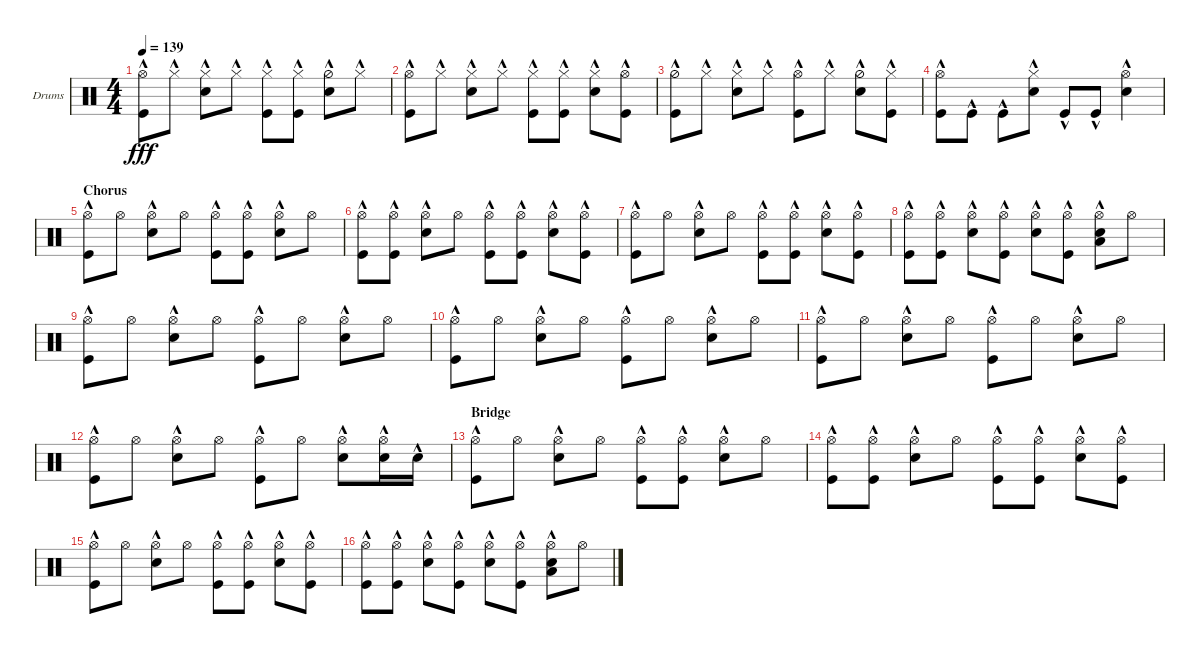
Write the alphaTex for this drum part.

\bracketExtendMode groupsimilarinstruments
\firstSystemTrackNameOrientation horizontal
\otherSystemsTrackNameOrientation horizontal
\track ("Drumkit" "Drums") {instrument percussion}
\staff {score}
\articulation defaults
\ts (4 4)
\tempo 139
\clef neutral
\ks c
("Kick (hit)"{hac} "Hi-Hat (open)"{hac}).8{dy fff} "Hi-Hat (closed)"{hac}.8 ("Hi-Hat (closed)"{hac} "Snare (hit) 2"{hac}).8 "Hi-Hat (closed)"{hac}.8 ("Hi-Hat (closed)"{hac} "Kick (hit)"{hac}).8 ("Hi-Hat (closed)"{hac} "Kick (hit)"{hac}).8 ("Hi-Hat (half)"{hac} "Snare (hit) 2"{hac}).8 "Hi-Hat (closed)"{hac}.8 |
("Kick (hit)"{hac} "Hi-Hat (open)"{hac}).8 "Hi-Hat (closed)"{hac}.8 ("Hi-Hat (closed)"{hac} "Snare (hit) 2"{hac}).8 "Hi-Hat (closed)"{hac}.8 ("Hi-Hat (closed)"{hac} "Kick (hit)"{hac}).8 ("Hi-Hat (closed)"{hac} "Kick (hit)"{hac}).8 ("Hi-Hat (closed)"{hac} "Snare (hit) 2"{hac}).8 ("Hi-Hat (open)"{hac} "Kick (hit)"{hac}).8 |
("Kick (hit)"{hac} "Hi-Hat (half)"{hac}).8 "Hi-Hat (closed)"{hac}.8 ("Hi-Hat (closed)"{hac} "Snare (hit) 2"{hac}).8 "Hi-Hat (closed)"{hac}.8 ("Hi-Hat (open)"{hac} "Kick (hit)"{hac}).8 "Hi-Hat (closed)"{hac}.8 ("Hi-Hat (half)"{hac} "Snare (hit) 2"{hac}).8 ("Hi-Hat (closed)"{hac} "Kick (hit)"{hac}).8 |
("Kick (hit)"{hac} "Hi-Hat (open)"{hac}).8 "Kick (hit)"{hac}.8 "Kick (hit)"{hac}.8 ("Snare (hit) 2"{hac} "Hi-Hat (closed)"{hac}).8 "Kick (hit)"{hac}.8 "Kick (hit)"{hac}.8 ("Hi-Hat (open)"{hac} "Snare (hit) 2"{hac}).4 |
\section ("" "Chorus")
("Hi-Hat (open)"{hac} "Kick (hit)"{hac}).8 "Hi-Hat (open)".8 ("Hi-Hat (open)"{hac} "Snare (hit) 2"{hac}).8 "Hi-Hat (open)".8 ("Hi-Hat (open)"{hac} "Kick (hit)"{hac}).8 ("Hi-Hat (open)" "Kick (hit)"{hac}).8 ("Hi-Hat (open)"{hac} "Snare (hit) 2"{hac}).8 "Hi-Hat (open)".8 |
("Hi-Hat (open)"{hac} "Kick (hit)"{hac}).8 ("Hi-Hat (open)" "Kick (hit)"{hac}).8 ("Hi-Hat (open)"{hac} "Snare (hit) 2"{hac}).8 "Hi-Hat (open)".8 ("Hi-Hat (open)"{hac} "Kick (hit)"{hac}).8 ("Hi-Hat (open)" "Kick (hit)"{hac}).8 ("Hi-Hat (open)"{hac} "Snare (hit) 2"{hac}).8 ("Hi-Hat (open)" "Kick (hit)"{hac}).8 |
("Hi-Hat (open)"{hac} "Kick (hit)"{hac}).8 "Hi-Hat (open)".8 ("Hi-Hat (open)"{hac} "Snare (hit) 2"{hac}).8 "Hi-Hat (open)".8 ("Hi-Hat (open)"{hac} "Kick (hit)"{hac}).8 ("Hi-Hat (open)" "Kick (hit)"{hac}).8 ("Hi-Hat (open)"{hac} "Snare (hit) 2"{hac}).8 ("Hi-Hat (open)" "Kick (hit)"{hac}).8 |
("Hi-Hat (open)"{hac} "Kick (hit)"{hac}).8 ("Hi-Hat (open)" "Kick (hit)"{hac}).8 ("Hi-Hat (open)"{hac} "Snare (hit) 2"{hac}).8 ("Hi-Hat (open)" "Kick (hit)"{hac}).8 ("Hi-Hat (open)"{hac} "Snare (hit) 2"{hac}).8 ("Hi-Hat (open)" "Kick (hit)"{hac}).8 ("Hi-Hat (open)"{hac} "Snare (hit) 2"{hac} "Low Tom (hit)"{hac}).8 "Hi-Hat (open)".8 |
("Hi-Hat (open)"{hac} "Kick (hit)"{hac}).8 "Hi-Hat (open)".8 ("Hi-Hat (open)"{hac} "Snare (hit) 2"{hac}).8 "Hi-Hat (open)".8 ("Hi-Hat (open)"{hac} "Kick (hit)"{hac}).8 "Hi-Hat (open)".8 ("Hi-Hat (open)"{hac} "Snare (hit) 2"{hac}).8 "Hi-Hat (open)".8 |
("Hi-Hat (open)"{hac} "Kick (hit)"{hac}).8 "Hi-Hat (open)".8 ("Hi-Hat (open)"{hac} "Snare (hit) 2"{hac}).8 "Hi-Hat (open)".8 ("Hi-Hat (open)"{hac} "Kick (hit)"{hac}).8 "Hi-Hat (open)".8 ("Hi-Hat (open)"{hac} "Snare (hit) 2"{hac}).8 "Hi-Hat (open)".8 |
("Hi-Hat (open)"{hac} "Kick (hit)"{hac}).8 "Hi-Hat (open)".8 ("Hi-Hat (open)"{hac} "Snare (hit) 2"{hac}).8 "Hi-Hat (open)".8 ("Hi-Hat (open)"{hac} "Kick (hit)"{hac}).8 "Hi-Hat (open)".8 ("Hi-Hat (open)"{hac} "Snare (hit) 2"{hac}).8 "Hi-Hat (open)".8 |
("Hi-Hat (open)"{hac} "Kick (hit)"{hac}).8 "Hi-Hat (open)".8 ("Hi-Hat (open)"{hac} "Snare (hit) 2"{hac}).8 "Hi-Hat (open)".8 ("Hi-Hat (open)"{hac} "Kick (hit)"{hac}).8 "Hi-Hat (open)".8 ("Hi-Hat (open)"{hac} "Snare (hit) 2"{hac}).8 ("Hi-Hat (open)" "Snare (hit) 2"{hac}).16 "Snare (hit) 2"{hac}.16 |
\section ("" "Bridge")
("Hi-Hat (open)"{hac} "Kick (hit)"{hac}).8 "Hi-Hat (open)".8 ("Hi-Hat (open)"{hac} "Snare (hit) 2"{hac}).8 "Hi-Hat (open)".8 ("Hi-Hat (open)"{hac} "Kick (hit)"{hac}).8 ("Hi-Hat (open)" "Kick (hit)"{hac}).8 ("Hi-Hat (open)"{hac} "Snare (hit) 2"{hac}).8 "Hi-Hat (open)".8 |
("Hi-Hat (open)"{hac} "Kick (hit)"{hac}).8 ("Hi-Hat (open)" "Kick (hit)"{hac}).8 ("Hi-Hat (open)"{hac} "Snare (hit) 2"{hac}).8 "Hi-Hat (open)".8 ("Hi-Hat (open)"{hac} "Kick (hit)"{hac}).8 ("Hi-Hat (open)" "Kick (hit)"{hac}).8 ("Hi-Hat (open)"{hac} "Snare (hit) 2"{hac}).8 ("Hi-Hat (open)" "Kick (hit)"{hac}).8 |
("Hi-Hat (open)"{hac} "Kick (hit)"{hac}).8 "Hi-Hat (open)".8 ("Hi-Hat (open)"{hac} "Snare (hit) 2"{hac}).8 "Hi-Hat (open)".8 ("Hi-Hat (open)"{hac} "Kick (hit)"{hac}).8 ("Hi-Hat (open)" "Kick (hit)"{hac}).8 ("Hi-Hat (open)"{hac} "Snare (hit) 2"{hac}).8 ("Hi-Hat (open)" "Kick (hit)"{hac}).8 |
("Hi-Hat (open)"{hac} "Kick (hit)"{hac}).8 ("Hi-Hat (open)" "Kick (hit)"{hac}).8 ("Hi-Hat (open)"{hac} "Snare (hit) 2"{hac}).8 ("Hi-Hat (open)" "Kick (hit)"{hac}).8 ("Hi-Hat (open)"{hac} "Snare (hit) 2"{hac}).8 ("Hi-Hat (open)" "Kick (hit)"{hac}).8 ("Hi-Hat (open)"{hac} "Snare (hit) 2"{hac} "Low Tom (hit)"{hac}).8 "Hi-Hat (open)".8
